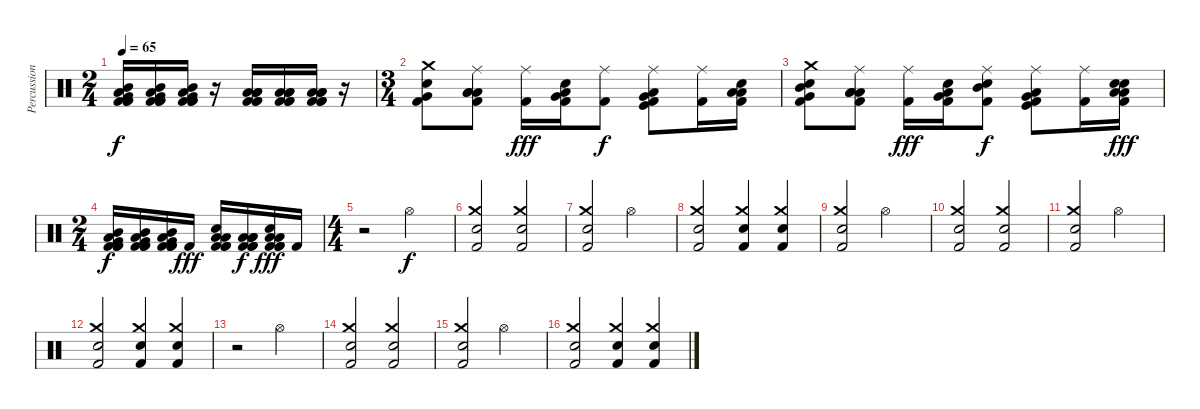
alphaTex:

\track ("Percussion" "Percussion") {instrument percussion}
\staff {score}
\articulation defaults
\ts (2 4)
\tempo 65
\clef neutral
\ks c
("Mid Tom (hit)" "Low Floor Tom (hit)" "Very Low Tom (hit)" "Kick (hit) 2" "Kick (hit) 2" "Kick (hit) 2").16{dy f} ("Mid Tom (hit)" "Low Floor Tom (hit)" "Very Low Tom (hit)" "Kick (hit) 2" "Kick (hit) 2" "Kick (hit) 2").16 ("Mid Tom (hit)" "Low Floor Tom (hit)" "Very Low Tom (hit)" "Kick (hit) 2" "Kick (hit) 2" "Kick (hit) 2").16 r.16 ("Low Tom (hit)" "Low Floor Tom (hit)" "Low Floor Tom (hit)" "Kick (hit) 2" "Kick (hit) 2" "Kick (hit) 2").16 ("Low Tom (hit)" "Low Floor Tom (hit)" "Low Floor Tom (hit)" "Kick (hit) 2" "Kick (hit) 2" "Kick (hit) 2").16 ("Low Tom (hit)" "Low Floor Tom (hit)" "Low Floor Tom (hit)" "Kick (hit) 2" "Kick (hit) 2" "Kick (hit) 2").16 r.16 |
\ts (3 4)
("Crash medium (hit)" "Very Low Tom (hit)" "Snare (hit) 2" "Kick (hit) 2").8 ("Ride (middle)" "Low Tom (hit)" "Low Tom (hit)" "Low Tom (hit)" "Kick (hit) 2").8 ("Ride (middle)" "Kick (hit) 2").16{dy fff} ("Snare (hit) 2" "Very Low Tom (hit)" "Low Floor Tom (hit)" "Kick (hit) 2").16 ("Ride (middle)" "Kick (hit) 2").8{dy f} ("Ride (middle)" "Very Low Tom (hit)" "Low Tom (hit)" "Kick (hit)" "Kick (hit) 2").8 ("Ride (middle)" "Kick (hit) 2").16 ("Snare (hit) 2" "Low Floor Tom (hit)" "Low Floor Tom (hit)" "Kick (hit) 2").16 |
("Crash medium (hit)" "Mid Tom (hit)" "Very Low Tom (hit)" "Snare (hit) 2" "Kick (hit) 2").8 ("Ride (middle)" "Low Tom (hit)" "Low Tom (hit)" "Low Tom (hit)" "Kick (hit) 2").8 ("Ride (middle)" "Kick (hit) 2").16{dy fff} ("Snare (hit) 2" "Very Low Tom (hit)" "Low Floor Tom (hit)" "Kick (hit) 2").16 ("Ride (middle)" "Mid Tom (hit)" "Electric Snare (hit)" "Kick (hit) 2").8{dy f} ("Ride (middle)" "Very Low Tom (hit)" "Low Tom (hit)" "Kick (hit)" "Kick (hit) 2").8 ("Ride (middle)" "Kick (hit) 2").16 ("Snare (hit) 2" "Electric Snare (hit)" "Low Floor Tom (hit)" "Low Floor Tom (hit)" "Kick (hit) 2").16{dy fff} |
\ts (2 4)
("Mid Tom (hit)" "Low Floor Tom (hit)" "Very Low Tom (hit)" "Kick (hit) 2" "Kick (hit) 2" "Kick (hit) 2").16{dy f} ("Mid Tom (hit)" "Low Floor Tom (hit)" "Very Low Tom (hit)" "Kick (hit) 2" "Kick (hit) 2" "Kick (hit) 2").16 ("Mid Tom (hit)" "Low Floor Tom (hit)" "Very Low Tom (hit)" "Kick (hit) 2" "Kick (hit) 2" "Kick (hit) 2").16 "Kick (hit) 2".16{dy fff} ("Snare (hit) 2" "Low Floor Tom (hit)" "Low Floor Tom (hit)" "Kick (hit) 2" "Kick (hit) 2" "Kick (hit) 2").16 ("Low Tom (hit)" "Low Floor Tom (hit)" "Low Floor Tom (hit)" "Kick (hit) 2" "Kick (hit) 2" "Kick (hit) 2").16{dy f} ("Snare (hit) 2" "Low Floor Tom (hit)" "Low Floor Tom (hit)" "Kick (hit) 2" "Kick (hit) 2" "Kick (hit) 2").16{dy fff} "Kick (hit) 2".16 |
\ts (4 4)
r.2 "Hi-Hat (open)".2{dy f} |
("Crash medium (hit)" "Electric Snare (hit)" "Kick (hit) 2").2 ("Crash medium (hit)" "Electric Snare (hit)" "Kick (hit) 2").2 |
("Crash medium (hit)" "Electric Snare (hit)" "Kick (hit) 2").2 "Hi-Hat (open)".2 |
("Crash medium (hit)" "Electric Snare (hit)" "Kick (hit) 2").2 ("Crash medium (hit)" "Electric Snare (hit)" "Kick (hit) 2").4 ("Crash medium (hit)" "Electric Snare (hit)" "Kick (hit) 2").4 |
("Crash medium (hit)" "Electric Snare (hit)" "Kick (hit) 2").2 "Hi-Hat (open)".2 |
("Crash medium (hit)" "Electric Snare (hit)" "Kick (hit) 2").2 ("Crash medium (hit)" "Electric Snare (hit)" "Kick (hit) 2").2 |
("Crash medium (hit)" "Electric Snare (hit)" "Kick (hit) 2").2 "Hi-Hat (open)".2 |
("Crash medium (hit)" "Electric Snare (hit)" "Kick (hit) 2").2 ("Crash medium (hit)" "Electric Snare (hit)" "Kick (hit) 2").4 ("Crash medium (hit)" "Electric Snare (hit)" "Kick (hit) 2").4 |
r.2 "Hi-Hat (open)".2 |
("Crash medium (hit)" "Electric Snare (hit)" "Kick (hit) 2").2 ("Crash medium (hit)" "Electric Snare (hit)" "Kick (hit) 2").2 |
("Crash medium (hit)" "Electric Snare (hit)" "Kick (hit) 2").2 "Hi-Hat (open)".2 |
("Crash medium (hit)" "Electric Snare (hit)" "Kick (hit) 2").2 ("Crash medium (hit)" "Electric Snare (hit)" "Kick (hit) 2").4 ("Crash medium (hit)" "Electric Snare (hit)" "Kick (hit) 2").4
